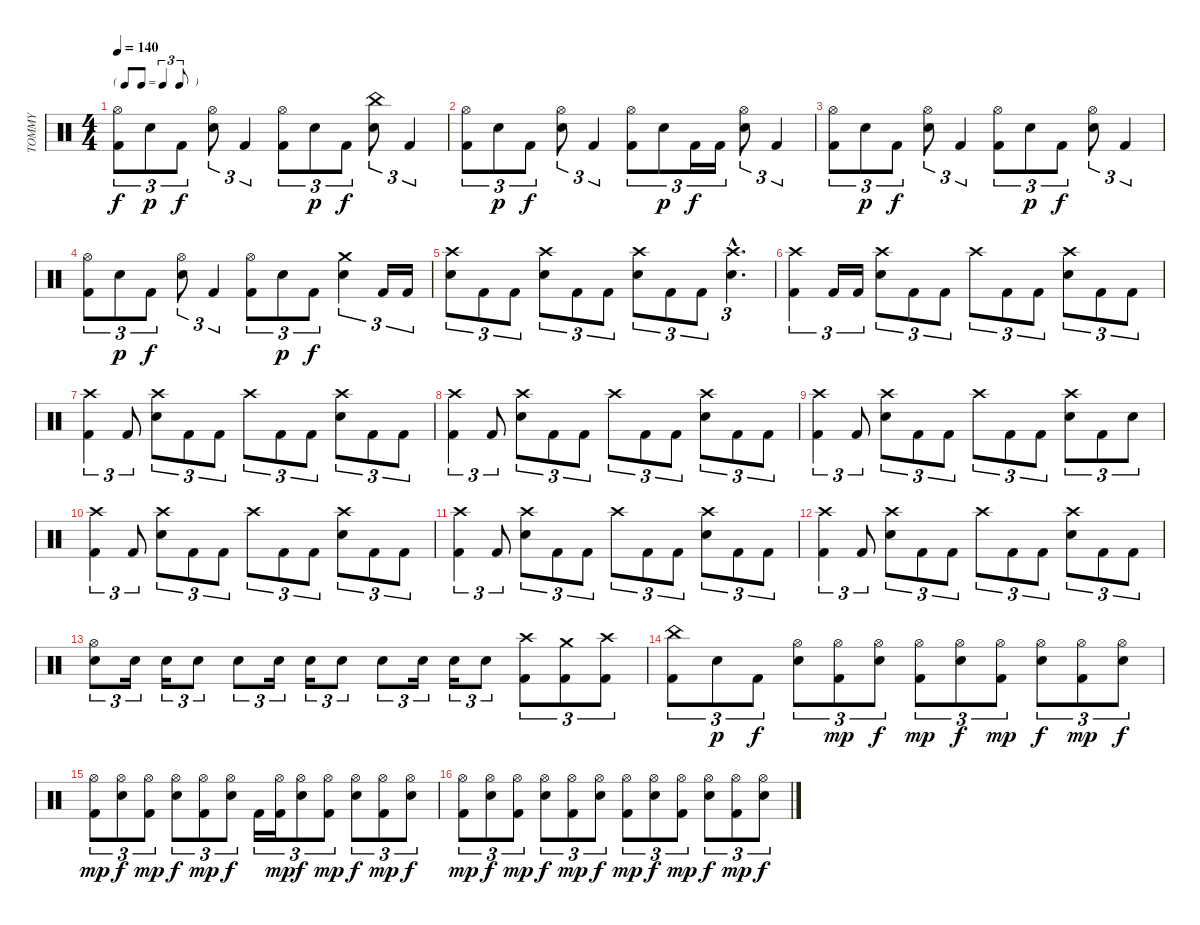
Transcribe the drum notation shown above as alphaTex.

\track ("TOMMY" "TOMMY") {instrument percussion}
\staff {score}
\articulation defaults
\ts (4 4)
\tf triplet8th
\tempo 140
\clef neutral
\ks c
("Kick (hit) 2" "Hi-Hat (open)").8{tu (3 2) dy f} "Snare (hit) 2".8{tu (3 2) dy p} "Kick (hit) 2".8{tu (3 2) dy f} ("Snare (hit) 2" "Hi-Hat (open)").8{tu (3 2)} "Kick (hit) 2".4{tu (3 2)} ("Kick (hit) 2" "Hi-Hat (open)").8{tu (3 2)} "Snare (hit) 2".8{tu (3 2) dy p} "Kick (hit) 2".8{tu (3 2) dy f} ("Snare (hit) 2" "China (hit)").8{tu (3 2)} "Kick (hit) 2".4{tu (3 2)} |
("Kick (hit) 2" "Hi-Hat (open)").8{tu (3 2)} "Snare (hit) 2".8{tu (3 2) dy p} "Kick (hit) 2".8{tu (3 2) dy f} ("Snare (hit) 2" "Hi-Hat (open)").8{tu (3 2)} "Kick (hit) 2".4{tu (3 2)} ("Kick (hit) 2" "Hi-Hat (open)").8{tu (3 2)} "Snare (hit) 2".8{tu (3 2) dy p} "Kick (hit) 2".16{tu (3 2) dy f} "Kick (hit) 2".16{tu (3 2)} ("Snare (hit) 2" "Hi-Hat (open)").8{tu (3 2)} "Kick (hit) 2".4{tu (3 2)} |
("Kick (hit) 2" "Hi-Hat (open)").8{tu (3 2)} "Snare (hit) 2".8{tu (3 2) dy p} "Kick (hit) 2".8{tu (3 2) dy f} ("Snare (hit) 2" "Hi-Hat (open)").8{tu (3 2)} "Kick (hit) 2".4{tu (3 2)} ("Kick (hit) 2" "Hi-Hat (open)").8{tu (3 2)} "Snare (hit) 2".8{tu (3 2) dy p} "Kick (hit) 2".8{tu (3 2) dy f} ("Snare (hit) 2" "Hi-Hat (open)").8{tu (3 2)} "Kick (hit) 2".4{tu (3 2)} |
("Kick (hit) 2" "Hi-Hat (open)").8{tu (3 2)} "Snare (hit) 2".8{tu (3 2) dy p} "Kick (hit) 2".8{tu (3 2) dy f} ("Snare (hit) 2" "Hi-Hat (open)").8{tu (3 2)} "Kick (hit) 2".4{tu (3 2)} ("Kick (hit) 2" "Hi-Hat (open)").8{tu (3 2)} "Snare (hit) 2".8{tu (3 2) dy p} "Kick (hit) 2".8{tu (3 2) dy f} ("Snare (hit) 2" "Crash medium (hit)").4{tu (3 2)} "Kick (hit) 2".16{tu (3 2)} "Kick (hit) 2".16{tu (3 2)} |
("Snare (hit) 2" "Crash high (hit)").8{tu (3 2)} "Kick (hit) 2".8{tu (3 2)} "Kick (hit) 2".8{tu (3 2)} ("Snare (hit) 2" "Crash high (hit)").8{tu (3 2)} "Kick (hit) 2".8{tu (3 2)} "Kick (hit) 2".8{tu (3 2)} ("Snare (hit) 2" "Crash high (hit)").8{tu (3 2)} "Kick (hit) 2".8{tu (3 2)} "Kick (hit) 2".8{tu (3 2)} ("Snare (hit) 2"{hac} "Crash high (hit)"{hac}).4{d tu (3 2)} |
("Kick (hit) 2" "Crash high (hit)").4{tu (3 2)} "Kick (hit) 2".16{tu (3 2)} "Kick (hit) 2".16{tu (3 2)} ("Snare (hit) 2" "Crash high (hit)").8{tu (3 2)} "Kick (hit) 2".8{tu (3 2)} "Kick (hit) 2".8{tu (3 2)} "Crash high (hit)".8{tu (3 2)} "Kick (hit) 2".8{tu (3 2)} "Kick (hit) 2".8{tu (3 2)} ("Snare (hit) 2" "Crash high (hit)").8{tu (3 2)} "Kick (hit) 2".8{tu (3 2)} "Kick (hit) 2".8{tu (3 2)} |
("Kick (hit) 2" "Crash high (hit)").4{tu (3 2)} "Kick (hit) 2".8{tu (3 2)} ("Snare (hit) 2" "Crash high (hit)").8{tu (3 2)} "Kick (hit) 2".8{tu (3 2)} "Kick (hit) 2".8{tu (3 2)} "Crash high (hit)".8{tu (3 2)} "Kick (hit) 2".8{tu (3 2)} "Kick (hit) 2".8{tu (3 2)} ("Snare (hit) 2" "Crash high (hit)").8{tu (3 2)} "Kick (hit) 2".8{tu (3 2)} "Kick (hit) 2".8{tu (3 2)} |
("Kick (hit) 2" "Crash high (hit)").4{tu (3 2)} "Kick (hit) 2".8{tu (3 2)} ("Snare (hit) 2" "Crash high (hit)").8{tu (3 2)} "Kick (hit) 2".8{tu (3 2)} "Kick (hit) 2".8{tu (3 2)} "Crash high (hit)".8{tu (3 2)} "Kick (hit) 2".8{tu (3 2)} "Kick (hit) 2".8{tu (3 2)} ("Snare (hit) 2" "Crash high (hit)").8{tu (3 2)} "Kick (hit) 2".8{tu (3 2)} "Kick (hit) 2".8{tu (3 2)} |
("Kick (hit) 2" "Crash high (hit)").4{tu (3 2)} "Kick (hit) 2".8{tu (3 2)} ("Snare (hit) 2" "Crash high (hit)").8{tu (3 2)} "Kick (hit) 2".8{tu (3 2)} "Kick (hit) 2".8{tu (3 2)} "Crash high (hit)".8{tu (3 2)} "Kick (hit) 2".8{tu (3 2)} "Kick (hit) 2".8{tu (3 2)} ("Snare (hit) 2" "Crash high (hit)").8{tu (3 2)} "Kick (hit) 2".8{tu (3 2)} "Snare (hit) 2".8{tu (3 2)} |
("Kick (hit) 2" "Crash high (hit)").4{tu (3 2)} "Kick (hit) 2".8{tu (3 2)} ("Snare (hit) 2" "Crash high (hit)").8{tu (3 2)} "Kick (hit) 2".8{tu (3 2)} "Kick (hit) 2".8{tu (3 2)} "Crash high (hit)".8{tu (3 2)} "Kick (hit) 2".8{tu (3 2)} "Kick (hit) 2".8{tu (3 2)} ("Snare (hit) 2" "Crash high (hit)").8{tu (3 2)} "Kick (hit) 2".8{tu (3 2)} "Kick (hit) 2".8{tu (3 2)} |
("Kick (hit) 2" "Crash high (hit)").4{tu (3 2)} "Kick (hit) 2".8{tu (3 2)} ("Snare (hit) 2" "Crash high (hit)").8{tu (3 2)} "Kick (hit) 2".8{tu (3 2)} "Kick (hit) 2".8{tu (3 2)} "Crash high (hit)".8{tu (3 2)} "Kick (hit) 2".8{tu (3 2)} "Kick (hit) 2".8{tu (3 2)} ("Snare (hit) 2" "Crash high (hit)").8{tu (3 2)} "Kick (hit) 2".8{tu (3 2)} "Kick (hit) 2".8{tu (3 2)} |
("Kick (hit) 2" "Crash high (hit)").4{tu (3 2)} "Kick (hit) 2".8{tu (3 2)} ("Snare (hit) 2" "Crash high (hit)").8{tu (3 2)} "Kick (hit) 2".8{tu (3 2)} "Kick (hit) 2".8{tu (3 2)} "Crash high (hit)".8{tu (3 2)} "Kick (hit) 2".8{tu (3 2)} "Kick (hit) 2".8{tu (3 2)} ("Snare (hit) 2" "Crash high (hit)").8{tu (3 2)} "Kick (hit) 2".8{tu (3 2)} "Kick (hit) 2".8{tu (3 2)} |
("Snare (hit) 2" "Hi-Hat (open)").8{tu (3 2)} "Snare (hit) 2".16{tu (3 2)} "Snare (hit) 2".16{tu (3 2)} "Snare (hit) 2".8{tu (3 2)} "Snare (hit) 2".8{tu (3 2)} "Snare (hit) 2".16{tu (3 2)} "Snare (hit) 2".16{tu (3 2)} "Snare (hit) 2".8{tu (3 2)} "Snare (hit) 2".8{tu (3 2)} "Snare (hit) 2".16{tu (3 2)} "Snare (hit) 2".16{tu (3 2)} "Snare (hit) 2".8{tu (3 2)} ("Kick (hit) 2" "Crash high (hit)").8{tu (3 2)} ("Kick (hit) 2" "Crash medium (hit)").8{tu (3 2)} ("Kick (hit) 2" "Crash high (hit)").8{tu (3 2)} |
("Kick (hit) 2" "China (hit)").8{tu (3 2)} "Snare (hit) 2".8{tu (3 2) dy p} "Kick (hit) 2".8{tu (3 2) dy f} ("Snare (hit) 2" "Hi-Hat (open)").8{tu (3 2)} ("Kick (hit) 2" "Hi-Hat (open)").8{tu (3 2) dy mp} ("Snare (hit) 2" "Hi-Hat (open)").8{tu (3 2) dy f} ("Kick (hit) 2" "Hi-Hat (open)").8{tu (3 2) dy mp} ("Snare (hit) 2" "Hi-Hat (open)").8{tu (3 2) dy f} ("Kick (hit) 2" "Hi-Hat (open)").8{tu (3 2) dy mp} ("Snare (hit) 2" "Hi-Hat (open)").8{tu (3 2) dy f} ("Kick (hit) 2" "Hi-Hat (open)").8{tu (3 2) dy mp} ("Snare (hit) 2" "Hi-Hat (open)").8{tu (3 2) dy f} |
("Kick (hit) 2" "Hi-Hat (open)").8{tu (3 2) dy mp} ("Snare (hit) 2" "Hi-Hat (open)").8{tu (3 2) dy f} ("Kick (hit) 2" "Hi-Hat (open)").8{tu (3 2) dy mp} ("Snare (hit) 2" "Hi-Hat (open)").8{tu (3 2) dy f} ("Kick (hit) 2" "Hi-Hat (open)").8{tu (3 2) dy mp} ("Snare (hit) 2" "Hi-Hat (open)").8{tu (3 2) dy f} "Kick (hit) 2".16{tu (3 2)} ("Kick (hit) 2" "Hi-Hat (open)").16{tu (3 2) dy mp} ("Snare (hit) 2" "Hi-Hat (open)").8{tu (3 2) dy f} ("Kick (hit) 2" "Hi-Hat (open)").8{tu (3 2) dy mp} ("Snare (hit) 2" "Hi-Hat (open)").8{tu (3 2) dy f} ("Kick (hit) 2" "Hi-Hat (open)").8{tu (3 2) dy mp} ("Snare (hit) 2" "Hi-Hat (open)").8{tu (3 2) dy f} |
("Kick (hit) 2" "Hi-Hat (open)").8{tu (3 2) dy mp} ("Snare (hit) 2" "Hi-Hat (open)").8{tu (3 2) dy f} ("Kick (hit) 2" "Hi-Hat (open)").8{tu (3 2) dy mp} ("Snare (hit) 2" "Hi-Hat (open)").8{tu (3 2) dy f} ("Kick (hit) 2" "Hi-Hat (open)").8{tu (3 2) dy mp} ("Snare (hit) 2" "Hi-Hat (open)").8{tu (3 2) dy f} ("Kick (hit) 2" "Hi-Hat (open)").8{tu (3 2) dy mp} ("Snare (hit) 2" "Hi-Hat (open)").8{tu (3 2) dy f} ("Kick (hit) 2" "Hi-Hat (open)").8{tu (3 2) dy mp} ("Snare (hit) 2" "Hi-Hat (open)").8{tu (3 2) dy f} ("Kick (hit) 2" "Hi-Hat (open)").8{tu (3 2) dy mp} ("Snare (hit) 2" "Hi-Hat (open)").8{tu (3 2) dy f}
